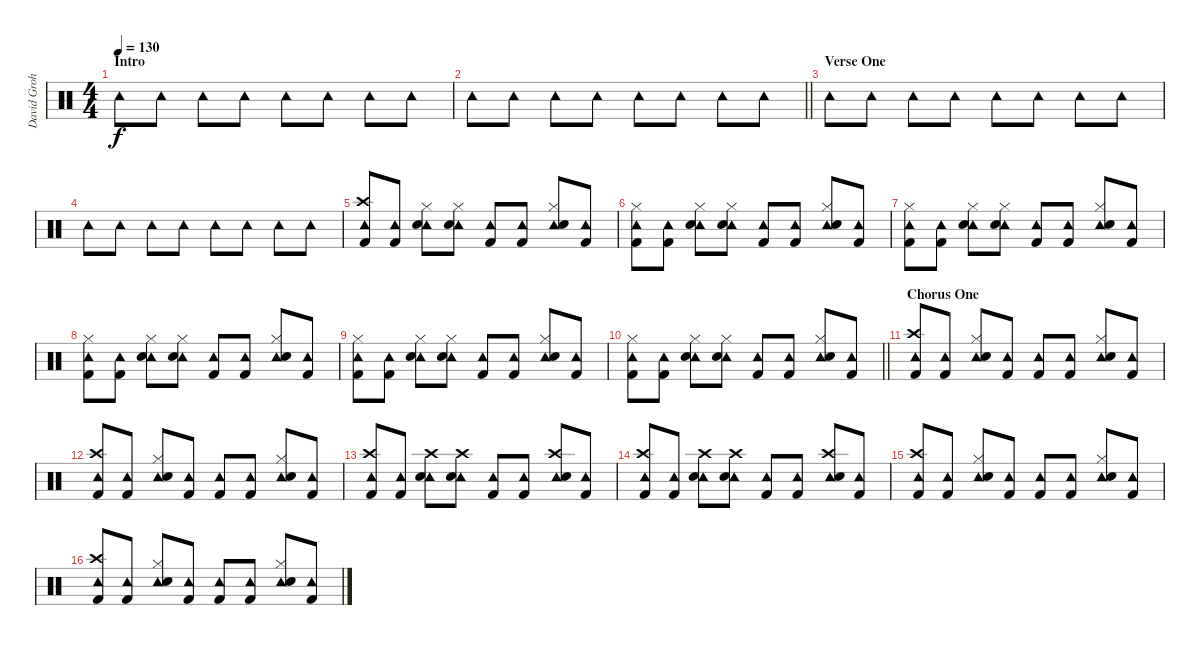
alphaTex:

\track ("David Grohl" "David Groh") {instrument percussion}
\staff {score}
\articulation defaults
\ts (4 4)
\section ("" "Intro")
\tempo 130
\clef neutral
\ks c "Tambourine (hit)".8{dy f volume 6} "Tambourine (hit)".8 "Tambourine (hit)".8 "Tambourine (hit)".8 "Tambourine (hit)".8 "Tambourine (hit)".8 "Tambourine (hit)".8 "Tambourine (hit)".8
|
\barLineRight lightlight "Tambourine (hit)".8 "Tambourine (hit)".8 "Tambourine (hit)".8 "Tambourine (hit)".8 "Tambourine (hit)".8 "Tambourine (hit)".8 "Tambourine (hit)".8 "Tambourine (hit)".8
|
\section ("" "Verse One")
"Tambourine (hit)".8 "Tambourine (hit)".8 "Tambourine (hit)".8 "Tambourine (hit)".8 "Tambourine (hit)".8 "Tambourine (hit)".8 "Tambourine (hit)".8 "Tambourine (hit)".8 |
"Tambourine (hit)".8 "Tambourine (hit)".8 "Tambourine (hit)".8 "Tambourine (hit)".8 "Tambourine (hit)".8 "Tambourine (hit)".8 "Tambourine (hit)".8 "Tambourine (hit)".8 |
("Crash high (hit)" "Tambourine (hit)" "Kick (hit) 2").8{volume 16} ("Tambourine (hit)" "Kick (hit) 2").8 ("Tambourine (hit)" "Hi-Hat (closed)" "Snare (hit) 2").8 ("Tambourine (hit)" "Hi-Hat (closed)" "Snare (hit) 2").8 ("Tambourine (hit)" "Kick (hit) 2").8 ("Tambourine (hit)" "Kick (hit) 2").8 ("Tambourine (hit)" "Hi-Hat (closed)" "Snare (hit) 2").8 ("Tambourine (hit)" "Kick (hit) 2").8 |
("Tambourine (hit)" "Hi-Hat (closed)" "Kick (hit) 2").8 ("Tambourine (hit)" "Kick (hit) 2").8 ("Tambourine (hit)" "Hi-Hat (closed)" "Snare (hit) 2").8 ("Tambourine (hit)" "Hi-Hat (closed)" "Snare (hit) 2").8 ("Tambourine (hit)" "Kick (hit) 2").8 ("Tambourine (hit)" "Kick (hit) 2").8 ("Tambourine (hit)" "Hi-Hat (closed)" "Snare (hit) 2").8 ("Tambourine (hit)" "Kick (hit) 2").8 |
("Tambourine (hit)" "Hi-Hat (closed)" "Kick (hit) 2").8 ("Tambourine (hit)" "Kick (hit) 2").8 ("Tambourine (hit)" "Hi-Hat (closed)" "Snare (hit) 2").8 ("Tambourine (hit)" "Hi-Hat (closed)" "Snare (hit) 2").8 ("Tambourine (hit)" "Kick (hit) 2").8 ("Tambourine (hit)" "Kick (hit) 2").8 ("Tambourine (hit)" "Hi-Hat (closed)" "Snare (hit) 2").8 ("Tambourine (hit)" "Kick (hit) 2").8 |
("Tambourine (hit)" "Hi-Hat (closed)" "Kick (hit) 2").8 ("Tambourine (hit)" "Kick (hit) 2").8 ("Tambourine (hit)" "Hi-Hat (closed)" "Snare (hit) 2").8 ("Tambourine (hit)" "Hi-Hat (closed)" "Snare (hit) 2").8 ("Tambourine (hit)" "Kick (hit) 2").8 ("Tambourine (hit)" "Kick (hit) 2").8 ("Tambourine (hit)" "Hi-Hat (closed)" "Snare (hit) 2").8 ("Tambourine (hit)" "Kick (hit) 2").8 |
("Tambourine (hit)" "Hi-Hat (closed)" "Kick (hit) 2").8 ("Tambourine (hit)" "Kick (hit) 2").8 ("Tambourine (hit)" "Hi-Hat (closed)" "Snare (hit) 2").8 ("Tambourine (hit)" "Hi-Hat (closed)" "Snare (hit) 2").8 ("Tambourine (hit)" "Kick (hit) 2").8 ("Tambourine (hit)" "Kick (hit) 2").8 ("Tambourine (hit)" "Hi-Hat (closed)" "Snare (hit) 2").8 ("Tambourine (hit)" "Kick (hit) 2").8 |
\barLineRight lightlight
("Tambourine (hit)" "Hi-Hat (closed)" "Kick (hit) 2").8 ("Tambourine (hit)" "Kick (hit) 2").8 ("Tambourine (hit)" "Hi-Hat (closed)" "Snare (hit) 2").8 ("Tambourine (hit)" "Hi-Hat (closed)" "Snare (hit) 2").8 ("Tambourine (hit)" "Kick (hit) 2").8 ("Tambourine (hit)" "Kick (hit) 2").8 ("Tambourine (hit)" "Hi-Hat (closed)" "Snare (hit) 2").8 ("Tambourine (hit)" "Kick (hit) 2").8 |
\section ("" "Chorus One")
("Crash high (hit)" "Tambourine (hit)" "Kick (hit) 2").8 ("Tambourine (hit)" "Kick (hit) 2").8 ("Tambourine (hit)" "Hi-Hat (closed)" "Snare (hit) 2").8 ("Tambourine (hit)" "Kick (hit) 2").8 ("Tambourine (hit)" "Kick (hit) 2").8 ("Tambourine (hit)" "Kick (hit) 2").8 ("Tambourine (hit)" "Hi-Hat (closed)" "Snare (hit) 2").8 ("Tambourine (hit)" "Kick (hit) 2").8 |
("Crash high (hit)" "Tambourine (hit)" "Kick (hit) 2").8 ("Tambourine (hit)" "Kick (hit) 2").8 ("Tambourine (hit)" "Hi-Hat (closed)" "Snare (hit) 2").8 ("Tambourine (hit)" "Kick (hit) 2").8 ("Tambourine (hit)" "Kick (hit) 2").8 ("Tambourine (hit)" "Kick (hit) 2").8 ("Tambourine (hit)" "Hi-Hat (closed)" "Snare (hit) 2").8 ("Tambourine (hit)" "Kick (hit) 2").8 |
("Crash high (hit)" "Tambourine (hit)" "Kick (hit) 2").8 ("Tambourine (hit)" "Kick (hit) 2").8 ("Crash high (hit)" "Tambourine (hit)" "Snare (hit) 2").8 ("Crash high (hit)" "Tambourine (hit)" "Snare (hit) 2").8 ("Tambourine (hit)" "Kick (hit) 2").8 ("Tambourine (hit)" "Kick (hit) 2").8 ("Crash high (hit)" "Tambourine (hit)" "Snare (hit) 2").8 ("Tambourine (hit)" "Kick (hit) 2").8 |
("Crash high (hit)" "Tambourine (hit)" "Kick (hit) 2").8 ("Tambourine (hit)" "Kick (hit) 2").8 ("Crash high (hit)" "Tambourine (hit)" "Snare (hit) 2").8 ("Crash high (hit)" "Tambourine (hit)" "Snare (hit) 2").8 ("Tambourine (hit)" "Kick (hit) 2").8 ("Tambourine (hit)" "Kick (hit) 2").8 ("Crash high (hit)" "Tambourine (hit)" "Snare (hit) 2").8 ("Tambourine (hit)" "Kick (hit) 2").8 |
("Crash high (hit)" "Tambourine (hit)" "Kick (hit) 2").8 ("Tambourine (hit)" "Kick (hit) 2").8 ("Tambourine (hit)" "Hi-Hat (closed)" "Snare (hit) 2").8 ("Tambourine (hit)" "Kick (hit) 2").8 ("Tambourine (hit)" "Kick (hit) 2").8 ("Tambourine (hit)" "Kick (hit) 2").8 ("Tambourine (hit)" "Hi-Hat (closed)" "Snare (hit) 2").8 ("Tambourine (hit)" "Kick (hit) 2").8 |
("Crash high (hit)" "Tambourine (hit)" "Kick (hit) 2").8 ("Tambourine (hit)" "Kick (hit) 2").8 ("Tambourine (hit)" "Hi-Hat (closed)" "Snare (hit) 2").8 ("Tambourine (hit)" "Kick (hit) 2").8 ("Tambourine (hit)" "Kick (hit) 2").8 ("Tambourine (hit)" "Kick (hit) 2").8 ("Tambourine (hit)" "Hi-Hat (closed)" "Snare (hit) 2").8 ("Tambourine (hit)" "Kick (hit) 2").8
